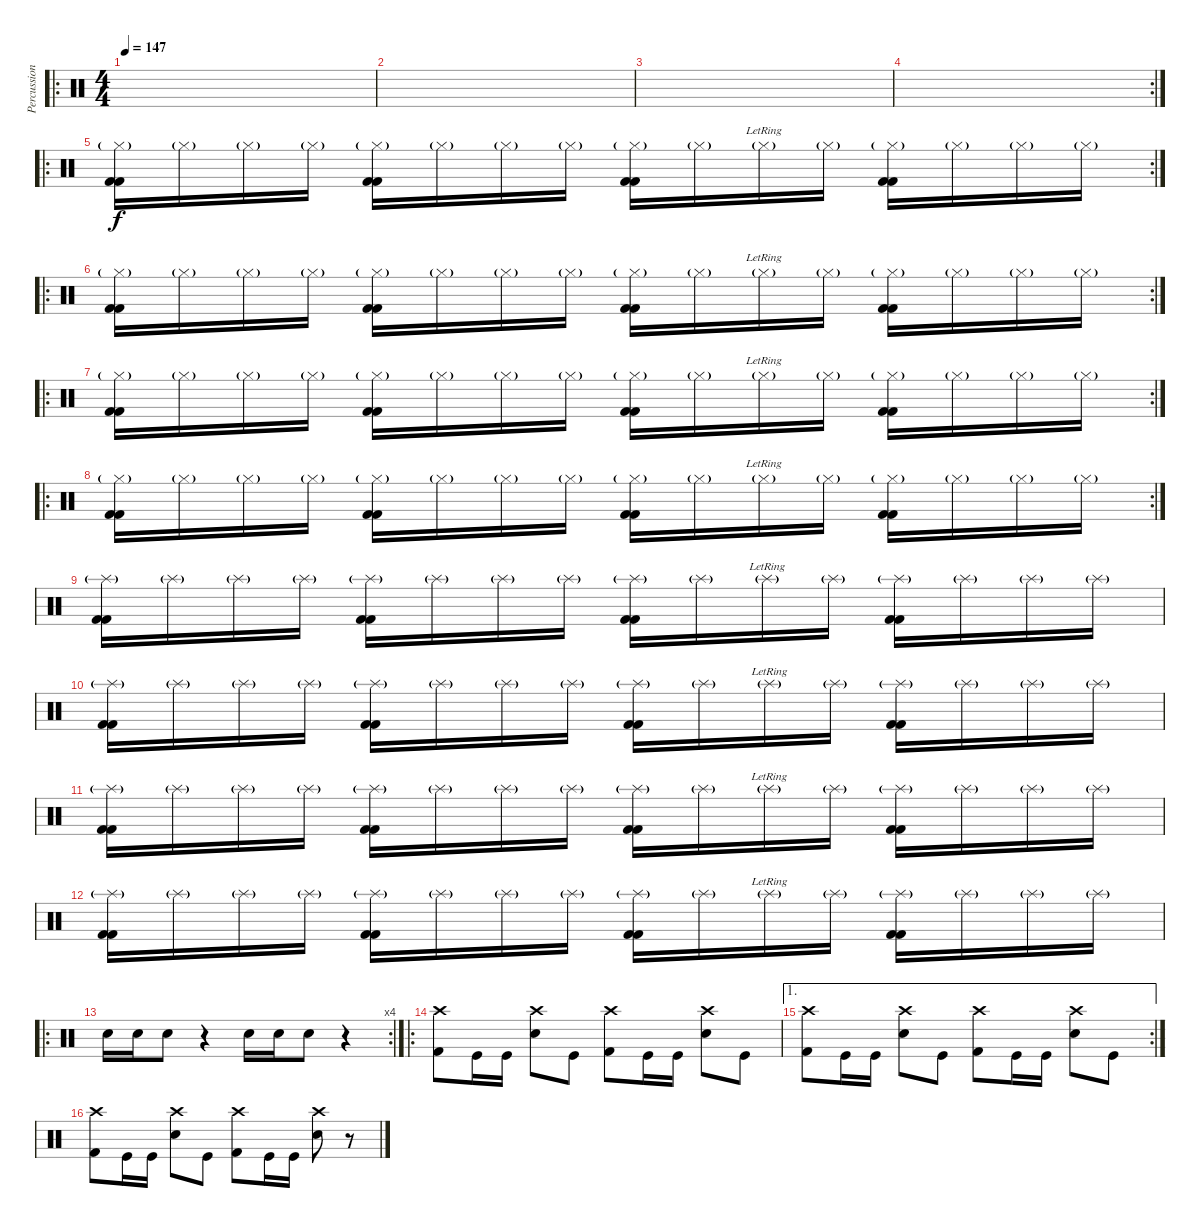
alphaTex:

\track ("Percussion" "Percussion") {instrument percussion}
\staff {score}
\articulation defaults
\ro
\ts (4 4)
\tempo 147
\clef neutral
\ks c
|
|
|
\rc 2
|
\ro
\rc 2
("Hi-Hat (closed)"{g} "Kick (hit) 2" "Kick (hit) 2").16 "Hi-Hat (closed)"{g}.16 "Hi-Hat (closed)"{g}.16 "Hi-Hat (closed)"{g}.16 ("Hi-Hat (closed)"{g} "Kick (hit) 2" "Kick (hit) 2").16 "Hi-Hat (closed)"{g}.16 "Hi-Hat (closed)"{g}.16 "Hi-Hat (closed)"{g}.16 ("Hi-Hat (closed)"{g} "Kick (hit) 2" "Kick (hit) 2").16 "Hi-Hat (closed)"{g}.16 "Hi-Hat (closed)"{g lr}.16 "Hi-Hat (closed)"{g}.16 ("Hi-Hat (closed)"{g} "Kick (hit) 2" "Kick (hit) 2").16 "Hi-Hat (closed)"{g}.16 "Hi-Hat (closed)"{g}.16 "Hi-Hat (closed)"{g}.16 |
\ro
\rc 2
("Hi-Hat (closed)"{g} "Kick (hit) 2" "Kick (hit) 2").16 "Hi-Hat (closed)"{g}.16 "Hi-Hat (closed)"{g}.16 "Hi-Hat (closed)"{g}.16 ("Hi-Hat (closed)"{g} "Kick (hit) 2" "Kick (hit) 2").16 "Hi-Hat (closed)"{g}.16 "Hi-Hat (closed)"{g}.16 "Hi-Hat (closed)"{g}.16 ("Hi-Hat (closed)"{g} "Kick (hit) 2" "Kick (hit) 2").16 "Hi-Hat (closed)"{g}.16 "Hi-Hat (closed)"{g lr}.16 "Hi-Hat (closed)"{g}.16 ("Hi-Hat (closed)"{g} "Kick (hit) 2" "Kick (hit) 2").16 "Hi-Hat (closed)"{g}.16 "Hi-Hat (closed)"{g}.16 "Hi-Hat (closed)"{g}.16 |
\ro
\rc 2
("Hi-Hat (closed)"{g} "Kick (hit) 2" "Kick (hit) 2").16 "Hi-Hat (closed)"{g}.16 "Hi-Hat (closed)"{g}.16 "Hi-Hat (closed)"{g}.16 ("Hi-Hat (closed)"{g} "Kick (hit) 2" "Kick (hit) 2").16 "Hi-Hat (closed)"{g}.16 "Hi-Hat (closed)"{g}.16 "Hi-Hat (closed)"{g}.16 ("Hi-Hat (closed)"{g} "Kick (hit) 2" "Kick (hit) 2").16 "Hi-Hat (closed)"{g}.16 "Hi-Hat (closed)"{g lr}.16 "Hi-Hat (closed)"{g}.16 ("Hi-Hat (closed)"{g} "Kick (hit) 2" "Kick (hit) 2").16 "Hi-Hat (closed)"{g}.16 "Hi-Hat (closed)"{g}.16 "Hi-Hat (closed)"{g}.16 |
\ro
\rc 2
("Hi-Hat (closed)"{g} "Kick (hit) 2" "Kick (hit) 2").16 "Hi-Hat (closed)"{g}.16 "Hi-Hat (closed)"{g}.16 "Hi-Hat (closed)"{g}.16 ("Hi-Hat (closed)"{g} "Kick (hit) 2" "Kick (hit) 2").16 "Hi-Hat (closed)"{g}.16 "Hi-Hat (closed)"{g}.16 "Hi-Hat (closed)"{g}.16 ("Hi-Hat (closed)"{g} "Kick (hit) 2" "Kick (hit) 2").16 "Hi-Hat (closed)"{g}.16 "Hi-Hat (closed)"{g lr}.16 "Hi-Hat (closed)"{g}.16 ("Hi-Hat (closed)"{g} "Kick (hit) 2" "Kick (hit) 2").16 "Hi-Hat (closed)"{g}.16 "Hi-Hat (closed)"{g}.16 "Hi-Hat (closed)"{g}.16 |
("Splash (hit)"{g} "Kick (hit) 2" "Kick (hit) 2").16{volume 2} "Splash (hit)"{g}.16{volume 11} "Splash (hit)"{g}.16 "Splash (hit)"{g}.16 ("Splash (hit)"{g} "Kick (hit) 2" "Kick (hit) 2").16 "Splash (hit)"{g}.16 "Splash (hit)"{g}.16 "Splash (hit)"{g}.16 ("Splash (hit)"{g} "Kick (hit) 2" "Kick (hit) 2").16 "Splash (hit)"{g}.16 "Splash (hit)"{g lr}.16 "Splash (hit)"{g}.16 ("Splash (hit)"{g} "Kick (hit) 2" "Kick (hit) 2").16 "Splash (hit)"{g}.16 "Splash (hit)"{g}.16 "Splash (hit)"{g}.16 |
("Splash (hit)"{g} "Kick (hit) 2" "Kick (hit) 2").16 "Splash (hit)"{g}.16 "Splash (hit)"{g}.16 "Splash (hit)"{g}.16 ("Splash (hit)"{g} "Kick (hit) 2" "Kick (hit) 2").16 "Splash (hit)"{g}.16 "Splash (hit)"{g}.16 "Splash (hit)"{g}.16 ("Splash (hit)"{g} "Kick (hit) 2" "Kick (hit) 2").16 "Splash (hit)"{g}.16 "Splash (hit)"{g lr}.16 "Splash (hit)"{g}.16 ("Splash (hit)"{g} "Kick (hit) 2" "Kick (hit) 2").16 "Splash (hit)"{g}.16 "Splash (hit)"{g}.16 "Splash (hit)"{g}.16 |
("Splash (hit)"{g} "Kick (hit) 2" "Kick (hit) 2").16 "Splash (hit)"{g}.16 "Splash (hit)"{g}.16 "Splash (hit)"{g}.16 ("Splash (hit)"{g} "Kick (hit) 2" "Kick (hit) 2").16 "Splash (hit)"{g}.16 "Splash (hit)"{g}.16 "Splash (hit)"{g}.16 ("Splash (hit)"{g} "Kick (hit) 2" "Kick (hit) 2").16 "Splash (hit)"{g}.16 "Splash (hit)"{g lr}.16 "Splash (hit)"{g}.16 ("Splash (hit)"{g} "Kick (hit) 2" "Kick (hit) 2").16 "Splash (hit)"{g}.16 "Splash (hit)"{g}.16 "Splash (hit)"{g}.16 |
("Splash (hit)"{g} "Kick (hit) 2" "Kick (hit) 2").16 "Splash (hit)"{g}.16 "Splash (hit)"{g}.16 "Splash (hit)"{g}.16 ("Splash (hit)"{g} "Kick (hit) 2" "Kick (hit) 2").16 "Splash (hit)"{g}.16 "Splash (hit)"{g}.16 "Splash (hit)"{g}.16 ("Splash (hit)"{g} "Kick (hit) 2" "Kick (hit) 2").16 "Splash (hit)"{g}.16 "Splash (hit)"{g lr}.16 "Splash (hit)"{g}.16 ("Splash (hit)"{g} "Kick (hit) 2" "Kick (hit) 2").16 "Splash (hit)"{g}.16 "Splash (hit)"{g}.16 "Splash (hit)"{g}.16 |
\ro
\rc 4 "Electric Snare (hit)".16{dy f} "Electric Snare (hit)".16 "Electric Snare (hit)".8
r.4 "Electric Snare (hit)".16 "Electric Snare (hit)".16 "Electric Snare (hit)".8 r.4 |
\ro
("Crash high (hit)" "Kick (hit) 2").8 "Kick (hit)".16 "Kick (hit)".16 ("Crash high (hit)" "Electric Snare (hit)").8 "Kick (hit)".8 ("Crash high (hit)" "Kick (hit) 2").8 "Kick (hit)".16 "Kick (hit)".16 ("Crash high (hit)" "Electric Snare (hit)").8 "Kick (hit)".8 |
\ae 1
\rc 2
("Crash high (hit)" "Kick (hit) 2").8 "Kick (hit)".16 "Kick (hit)".16 ("Crash high (hit)" "Electric Snare (hit)").8 "Kick (hit)".8 ("Crash high (hit)" "Kick (hit) 2").8 "Kick (hit)".16 "Kick (hit)".16 ("Crash high (hit)" "Electric Snare (hit)").8 "Kick (hit)".8 |
("Crash high (hit)" "Kick (hit) 2").8 "Kick (hit)".16 "Kick (hit)".16 ("Crash high (hit)" "Electric Snare (hit)").8 "Kick (hit)".8 ("Crash high (hit)" "Kick (hit) 2").8 "Kick (hit)".16 "Kick (hit)".16 ("Crash high (hit)" "Electric Snare (hit)").8 r.8
